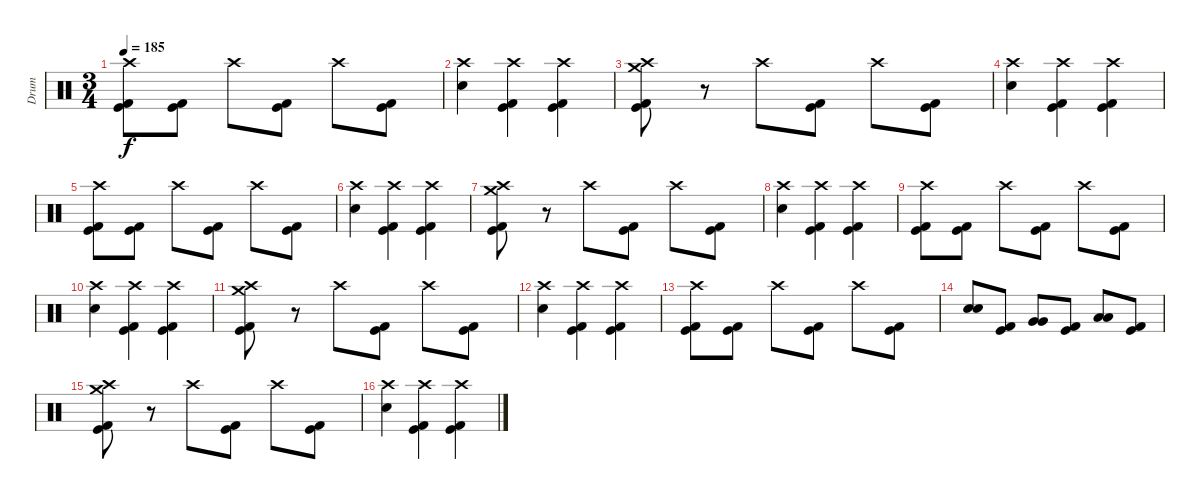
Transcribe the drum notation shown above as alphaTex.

\track ("Drum" "Drum") {instrument percussion}
\staff {score}
\articulation defaults
\ts (3 4)
\tempo 185
\clef neutral
\ks c
("Crash high (hit)" "Kick (hit)" "Kick (hit) 2").8{dy f} ("Kick (hit)" "Kick (hit) 2").8 "Crash high (hit)".8 ("Kick (hit)" "Kick (hit) 2").8 "Crash high (hit)".8 ("Kick (hit)" "Kick (hit) 2").8 |
("Crash high (hit)" "Electric Snare (hit)").4 ("Crash high (hit)" "Kick (hit)" "Kick (hit) 2").4 ("Crash high (hit)" "Kick (hit)" "Kick (hit) 2").4 |
("Crash medium (hit)" "Crash high (hit)" "Kick (hit)" "Kick (hit) 2").8 r.8 "Crash high (hit)".8 ("Kick (hit)" "Kick (hit) 2").8 "Crash high (hit)".8 ("Kick (hit)" "Kick (hit) 2").8 |
("Crash high (hit)" "Electric Snare (hit)").4 ("Crash high (hit)" "Kick (hit)" "Kick (hit) 2").4 ("Crash high (hit)" "Kick (hit)" "Kick (hit) 2").4 |
("Crash high (hit)" "Kick (hit)" "Kick (hit) 2").8 ("Kick (hit)" "Kick (hit) 2").8 "Crash high (hit)".8 ("Kick (hit)" "Kick (hit) 2").8 "Crash high (hit)".8 ("Kick (hit)" "Kick (hit) 2").8 |
("Crash high (hit)" "Electric Snare (hit)").4 ("Crash high (hit)" "Kick (hit)" "Kick (hit) 2").4 ("Crash high (hit)" "Kick (hit)" "Kick (hit) 2").4 |
("Crash medium (hit)" "Crash high (hit)" "Kick (hit)" "Kick (hit) 2").8 r.8 "Crash high (hit)".8 ("Kick (hit)" "Kick (hit) 2").8 "Crash high (hit)".8 ("Kick (hit)" "Kick (hit) 2").8 |
("Crash high (hit)" "Electric Snare (hit)").4 ("Crash high (hit)" "Kick (hit)" "Kick (hit) 2").4 ("Crash high (hit)" "Kick (hit)" "Kick (hit) 2").4 |
("Crash high (hit)" "Kick (hit)" "Kick (hit) 2").8 ("Kick (hit)" "Kick (hit) 2").8 "Crash high (hit)".8 ("Kick (hit)" "Kick (hit) 2").8 "Crash high (hit)".8 ("Kick (hit)" "Kick (hit) 2").8 |
("Crash high (hit)" "Electric Snare (hit)").4 ("Crash high (hit)" "Kick (hit)" "Kick (hit) 2").4 ("Crash high (hit)" "Kick (hit)" "Kick (hit) 2").4 |
("Crash medium (hit)" "Crash high (hit)" "Kick (hit)" "Kick (hit) 2").8 r.8 "Crash high (hit)".8 ("Kick (hit)" "Kick (hit) 2").8 "Crash high (hit)".8 ("Kick (hit)" "Kick (hit) 2").8 |
("Crash high (hit)" "Electric Snare (hit)").4 ("Crash high (hit)" "Kick (hit)" "Kick (hit) 2").4 ("Crash high (hit)" "Kick (hit)" "Kick (hit) 2").4 |
("Crash high (hit)" "Kick (hit)" "Kick (hit) 2").8 ("Kick (hit)" "Kick (hit) 2").8 "Crash high (hit)".8 ("Kick (hit)" "Kick (hit) 2").8 "Crash high (hit)".8 ("Kick (hit)" "Kick (hit) 2").8 |
("Electric Snare (hit)" "Electric Snare (hit)").8{bu 480} ("Kick (hit)" "Kick (hit) 2").8 ("Very Low Tom (hit)" "Very Low Tom (hit)").8{bu 480} ("Kick (hit)" "Kick (hit) 2").8 ("Low Floor Tom (hit)" "Low Floor Tom (hit)").8{bu 480} ("Kick (hit)" "Kick (hit) 2").8 |
("Crash medium (hit)" "Crash high (hit)" "Kick (hit)" "Kick (hit) 2").8 r.8 "Crash high (hit)".8 ("Kick (hit)" "Kick (hit) 2").8 "Crash high (hit)".8 ("Kick (hit)" "Kick (hit) 2").8 |
("Crash high (hit)" "Electric Snare (hit)").4 ("Crash high (hit)" "Kick (hit)" "Kick (hit) 2").4 ("Crash high (hit)" "Kick (hit)" "Kick (hit) 2").4
